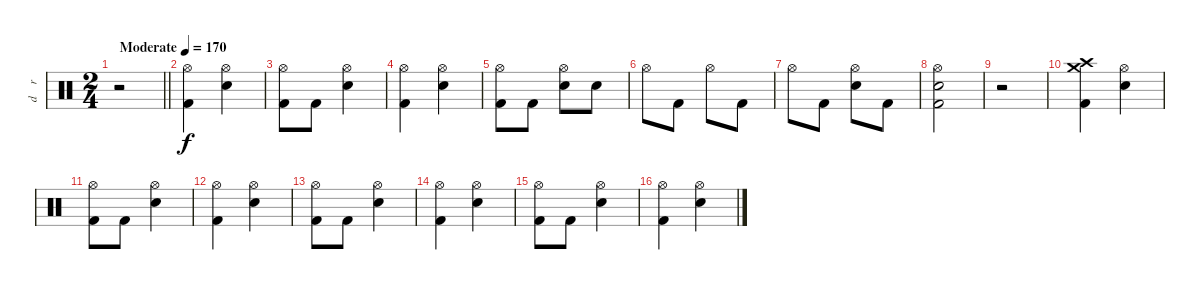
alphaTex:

\track ("d    r     u     m    s" "d    r    ") {instrument percussion}
\staff {score}
\articulation defaults
\ts (2 4)
\tempo (170 "Moderate")
\clef neutral
\barLineRight lightlight
\ks c
r.2{dy f} |
("Hi-Hat (open)" "Kick (hit) 2").4 ("Hi-Hat (open)" "Electric Snare (hit)").4 |
("Hi-Hat (open)" "Kick (hit) 2").8 "Kick (hit) 2".8 ("Hi-Hat (open)" "Electric Snare (hit)").4 |
("Hi-Hat (open)" "Kick (hit) 2").4 ("Hi-Hat (open)" "Electric Snare (hit)").4 |
("Hi-Hat (open)" "Kick (hit) 2").8 "Kick (hit) 2".8 ("Hi-Hat (open)" "Electric Snare (hit)").8 "Electric Snare (hit)".8 |
"Hi-Hat (open)".8 "Kick (hit) 2".8 "Hi-Hat (open)".8 "Kick (hit) 2".8 |
"Hi-Hat (open)".8 "Kick (hit) 2".8 ("Hi-Hat (open)" "Electric Snare (hit)").8 "Kick (hit) 2".8 |
("Hi-Hat (open)" "Electric Snare (hit)" "Kick (hit) 2").2 |
r.2 |
("Crash high (hit)" "Crash medium (hit)" "Kick (hit) 2").4 ("Hi-Hat (open)" "Electric Snare (hit)").4 |
("Hi-Hat (open)" "Kick (hit) 2").8 "Kick (hit) 2".8 ("Hi-Hat (open)" "Electric Snare (hit)").4 |
("Hi-Hat (open)" "Kick (hit) 2").4 ("Hi-Hat (open)" "Electric Snare (hit)").4 |
("Hi-Hat (open)" "Kick (hit) 2").8 "Kick (hit) 2".8 ("Hi-Hat (open)" "Electric Snare (hit)").4 |
("Hi-Hat (open)" "Kick (hit) 2").4 ("Hi-Hat (open)" "Electric Snare (hit)").4 |
("Hi-Hat (open)" "Kick (hit) 2").8 "Kick (hit) 2".8 ("Hi-Hat (open)" "Electric Snare (hit)").4 |
("Hi-Hat (open)" "Kick (hit) 2").4 ("Hi-Hat (open)" "Electric Snare (hit)").4
